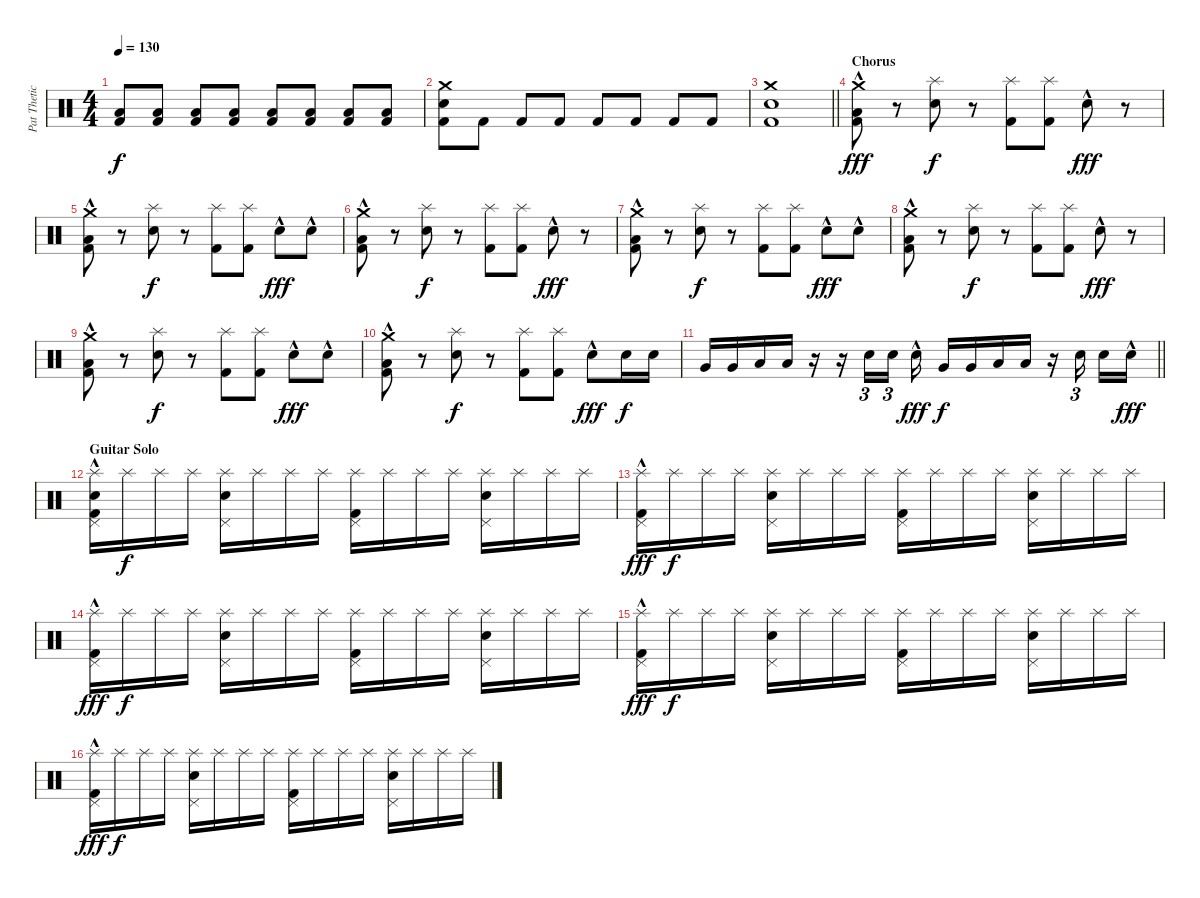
\track ("Pat Thetic Drums" "Pat Thetic") {instrument percussion}
\staff {score}
\articulation defaults
\ts (4 4)
\tempo 130
\clef neutral
\ks c
("Kick (hit) 2" "Low Floor Tom (hit)").8{dy f} ("Kick (hit) 2" "Low Floor Tom (hit)").8 ("Kick (hit) 2" "Low Floor Tom (hit)").8 ("Kick (hit) 2" "Low Floor Tom (hit)").8 ("Kick (hit) 2" "Low Floor Tom (hit)").8 ("Kick (hit) 2" "Low Floor Tom (hit)").8 ("Kick (hit) 2" "Low Floor Tom (hit)").8 ("Kick (hit) 2" "Low Floor Tom (hit)").8 |
("Kick (hit) 2" "Snare (hit) 2" "Crash medium (hit)").8 "Kick (hit) 2".8{volume 11} "Kick (hit) 2".8{volume 16} "Kick (hit) 2".8 "Kick (hit) 2".8 "Kick (hit) 2".8 "Kick (hit) 2".8 "Kick (hit) 2".8 |
\barLineRight lightlight
("Kick (hit) 2" "Snare (hit) 2" "Crash medium (hit)").1 |
\section ("" "Chorus")
("Kick (hit) 2"{hac} "Low Floor Tom (hit)" "Crash medium (hit)").8{dy fff} r.8 ("Splash (hit)" "Snare (hit) 2").8{dy f} r.8 ("Splash (hit)" "Kick (hit) 2").8 ("Splash (hit)" "Kick (hit) 2").8 "Snare (hit) 2"{hac}.8{dy fff} r.8 |
("Kick (hit) 2"{hac} "Low Floor Tom (hit)" "Crash medium (hit)").8 r.8 ("Splash (hit)" "Snare (hit) 2").8{dy f} r.8 ("Splash (hit)" "Kick (hit) 2").8 ("Splash (hit)" "Kick (hit) 2").8 "Snare (hit) 2"{hac}.8{dy fff} "Snare (hit) 2"{hac}.8 |
("Kick (hit) 2"{hac} "Low Floor Tom (hit)" "Crash medium (hit)").8 r.8 ("Splash (hit)" "Snare (hit) 2").8{dy f} r.8 ("Splash (hit)" "Kick (hit) 2").8 ("Splash (hit)" "Kick (hit) 2").8 "Snare (hit) 2"{hac}.8{dy fff} r.8 |
("Kick (hit) 2"{hac} "Low Floor Tom (hit)" "Crash medium (hit)").8 r.8 ("Splash (hit)" "Snare (hit) 2").8{dy f} r.8 ("Splash (hit)" "Kick (hit) 2").8 ("Splash (hit)" "Kick (hit) 2").8 "Snare (hit) 2"{hac}.8{dy fff} "Snare (hit) 2"{hac}.8 |
("Kick (hit) 2"{hac} "Low Floor Tom (hit)" "Crash medium (hit)").8 r.8 ("Splash (hit)" "Snare (hit) 2").8{dy f} r.8 ("Splash (hit)" "Kick (hit) 2").8 ("Splash (hit)" "Kick (hit) 2").8 "Snare (hit) 2"{hac}.8{dy fff} r.8 |
("Kick (hit) 2"{hac} "Low Floor Tom (hit)" "Crash medium (hit)").8 r.8 ("Splash (hit)" "Snare (hit) 2").8{dy f} r.8 ("Splash (hit)" "Kick (hit) 2").8 ("Splash (hit)" "Kick (hit) 2").8 "Snare (hit) 2"{hac}.8{dy fff} "Snare (hit) 2"{hac}.8 |
("Kick (hit) 2"{hac} "Low Floor Tom (hit)" "Crash medium (hit)").8 r.8 ("Splash (hit)" "Snare (hit) 2").8{dy f} r.8 ("Splash (hit)" "Kick (hit) 2").8 ("Splash (hit)" "Kick (hit) 2").8 "Snare (hit) 2"{hac}.8{dy fff} "Snare (hit) 2".16{dy f} "Snare (hit) 2".16 |
\barLineRight lightlight "Very Low Tom (hit)".16 "Very Low Tom (hit)".16 "Low Tom (hit)".16 "Low Tom (hit)".16
r.16 r.16 "Snare (hit) 2".16{tu (3 2)} "Snare (hit) 2".16{tu (3 2) beam splitsecondary} "Snare (hit) 2"{hac}.16{dy fff} "Very Low Tom (hit)".16{dy f} "Very Low Tom (hit)".16 "Low Tom (hit)".16 "Low Tom (hit)".16 r.16 "Snare (hit) 2".16{tu (3 2) beam splitsecondary} "Snare (hit) 2".16 "Snare (hit) 2"{hac}.16{dy fff} |
\section ("" "Guitar Solo")
("Splash (hit)" "Pedal Hi-Hat (hit)" "Snare (hit) 2" "Kick (hit) 2"{hac}).16 "Splash (hit)".16{dy f} "Splash (hit)".16 "Splash (hit)".16 ("Splash (hit)" "Pedal Hi-Hat (hit)" "Snare (hit) 2").16 "Splash (hit)".16 "Splash (hit)".16 "Splash (hit)".16 ("Splash (hit)" "Pedal Hi-Hat (hit)" "Kick (hit) 2").16 "Splash (hit)".16 "Splash (hit)".16 "Splash (hit)".16 ("Splash (hit)" "Pedal Hi-Hat (hit)" "Snare (hit) 2").16 "Splash (hit)".16 "Splash (hit)".16 "Splash (hit)".16 |
("Splash (hit)" "Pedal Hi-Hat (hit)" "Kick (hit) 2"{hac}).16{dy fff} "Splash (hit)".16{dy f} "Splash (hit)".16 "Splash (hit)".16 ("Splash (hit)" "Pedal Hi-Hat (hit)" "Snare (hit) 2").16 "Splash (hit)".16 "Splash (hit)".16 "Splash (hit)".16 ("Splash (hit)" "Pedal Hi-Hat (hit)" "Kick (hit) 2").16 "Splash (hit)".16 "Splash (hit)".16 "Splash (hit)".16 ("Splash (hit)" "Pedal Hi-Hat (hit)" "Snare (hit) 2").16 "Splash (hit)".16 "Splash (hit)".16 "Splash (hit)".16 |
("Splash (hit)" "Pedal Hi-Hat (hit)" "Kick (hit) 2"{hac}).16{dy fff} "Splash (hit)".16{dy f} "Splash (hit)".16 "Splash (hit)".16 ("Splash (hit)" "Pedal Hi-Hat (hit)" "Snare (hit) 2").16 "Splash (hit)".16 "Splash (hit)".16 "Splash (hit)".16 ("Splash (hit)" "Pedal Hi-Hat (hit)" "Kick (hit) 2").16 "Splash (hit)".16 "Splash (hit)".16 "Splash (hit)".16 ("Splash (hit)" "Pedal Hi-Hat (hit)" "Snare (hit) 2").16 "Splash (hit)".16 "Splash (hit)".16 "Splash (hit)".16 |
("Splash (hit)" "Pedal Hi-Hat (hit)" "Kick (hit) 2"{hac}).16{dy fff} "Splash (hit)".16{dy f} "Splash (hit)".16 "Splash (hit)".16 ("Splash (hit)" "Pedal Hi-Hat (hit)" "Snare (hit) 2").16 "Splash (hit)".16 "Splash (hit)".16 "Splash (hit)".16 ("Splash (hit)" "Pedal Hi-Hat (hit)" "Kick (hit) 2").16 "Splash (hit)".16 "Splash (hit)".16 "Splash (hit)".16 ("Splash (hit)" "Pedal Hi-Hat (hit)" "Snare (hit) 2").16 "Splash (hit)".16 "Splash (hit)".16 "Splash (hit)".16 |
("Splash (hit)" "Pedal Hi-Hat (hit)" "Kick (hit) 2"{hac}).16{dy fff} "Splash (hit)".16{dy f} "Splash (hit)".16 "Splash (hit)".16 ("Splash (hit)" "Pedal Hi-Hat (hit)" "Snare (hit) 2").16 "Splash (hit)".16 "Splash (hit)".16 "Splash (hit)".16 ("Splash (hit)" "Pedal Hi-Hat (hit)" "Kick (hit) 2").16 "Splash (hit)".16 "Splash (hit)".16 "Splash (hit)".16 ("Splash (hit)" "Pedal Hi-Hat (hit)" "Snare (hit) 2").16 "Splash (hit)".16 "Splash (hit)".16 "Splash (hit)".16
